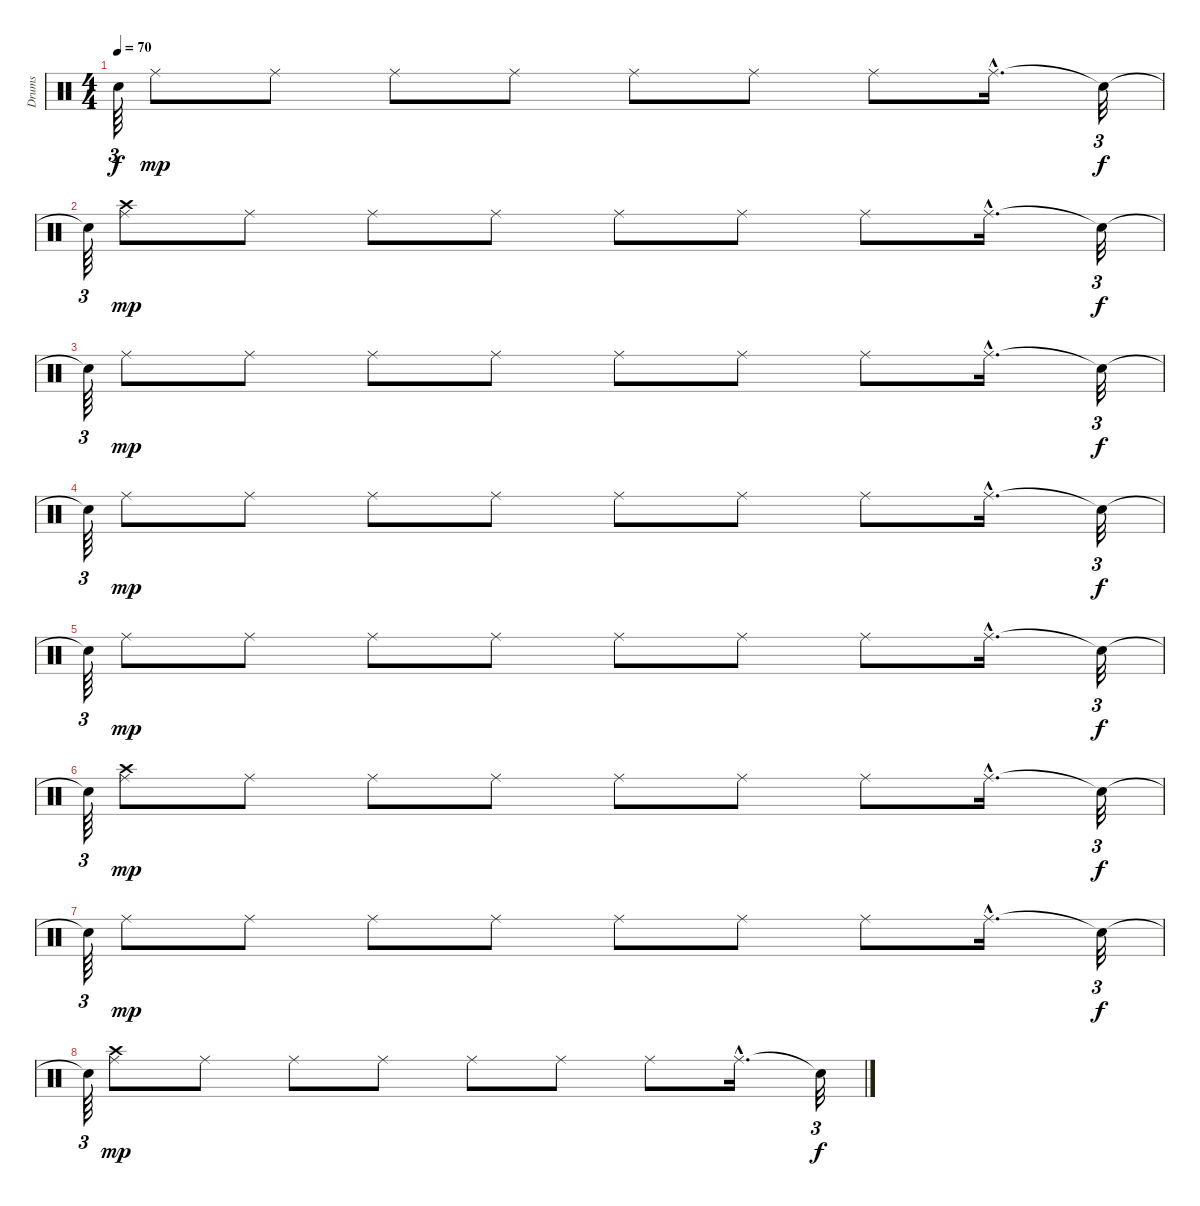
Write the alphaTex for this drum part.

\track ("Drums               " "Drums     ") {instrument percussion}
\staff {score}
\articulation defaults
\ts (4 4)
\tempo 70
\clef neutral
\ks c "Snare (hit)"{t}.64{tu (3 2) dy f} "Ride (middle)".8{dy mp} "Ride (middle)".8 "Ride (middle)".8 "Ride (middle)".8 "Ride (middle)".8 "Ride (middle)".8 "Ride (middle)".8 "Ride (middle)"{hac}.16{d} "Snare (hit)"{t}.32{tu (3 2) dy f}
|
"Snare (hit)"{t}.64{tu (3 2)} ("Crash high (hit)" "Ride (middle)").8{dy mp} "Ride (middle)".8 "Ride (middle)".8 "Ride (middle)".8 "Ride (middle)".8 "Ride (middle)".8 "Ride (middle)".8 "Ride (middle)"{hac}.16{d} "Snare (hit)"{t}.32{tu (3 2) dy f} |
"Snare (hit)"{t}.64{tu (3 2)} "Ride (middle)".8{dy mp} "Ride (middle)".8 "Ride (middle)".8 "Ride (middle)".8 "Ride (middle)".8 "Ride (middle)".8 "Ride (middle)".8 "Ride (middle)"{hac}.16{d} "Snare (hit)"{t}.32{tu (3 2) dy f} |
"Snare (hit)"{t}.64{tu (3 2)} "Ride (middle)".8{dy mp} "Ride (middle)".8 "Ride (middle)".8 "Ride (middle)".8 "Ride (middle)".8 "Ride (middle)".8 "Ride (middle)".8 "Ride (middle)"{hac}.16{d} "Snare (hit)"{t}.32{tu (3 2) dy f} |
"Snare (hit)"{t}.64{tu (3 2)} "Ride (middle)".8{dy mp} "Ride (middle)".8 "Ride (middle)".8 "Ride (middle)".8 "Ride (middle)".8 "Ride (middle)".8 "Ride (middle)".8 "Ride (middle)"{hac}.16{d} "Snare (hit)"{t}.32{tu (3 2) dy f} |
"Snare (hit)"{t}.64{tu (3 2)} ("Crash high (hit)" "Ride (middle)").8{dy mp} "Ride (middle)".8 "Ride (middle)".8 "Ride (middle)".8 "Ride (middle)".8 "Ride (middle)".8 "Ride (middle)".8 "Ride (middle)"{hac}.16{d} "Snare (hit)"{t}.32{tu (3 2) dy f} |
"Snare (hit)"{t}.64{tu (3 2)} "Ride (middle)".8{dy mp} "Ride (middle)".8 "Ride (middle)".8 "Ride (middle)".8 "Ride (middle)".8 "Ride (middle)".8 "Ride (middle)".8 "Ride (middle)"{hac}.16{d} "Snare (hit)"{t}.32{tu (3 2) dy f} |
"Snare (hit)"{t}.64{tu (3 2)} ("Crash high (hit)" "Ride (middle)").8{dy mp} "Ride (middle)".8 "Ride (middle)".8 "Ride (middle)".8 "Ride (middle)".8 "Ride (middle)".8 "Ride (middle)".8 "Ride (middle)"{hac}.16{d} "Snare (hit)"{t}.32{tu (3 2) dy f}
